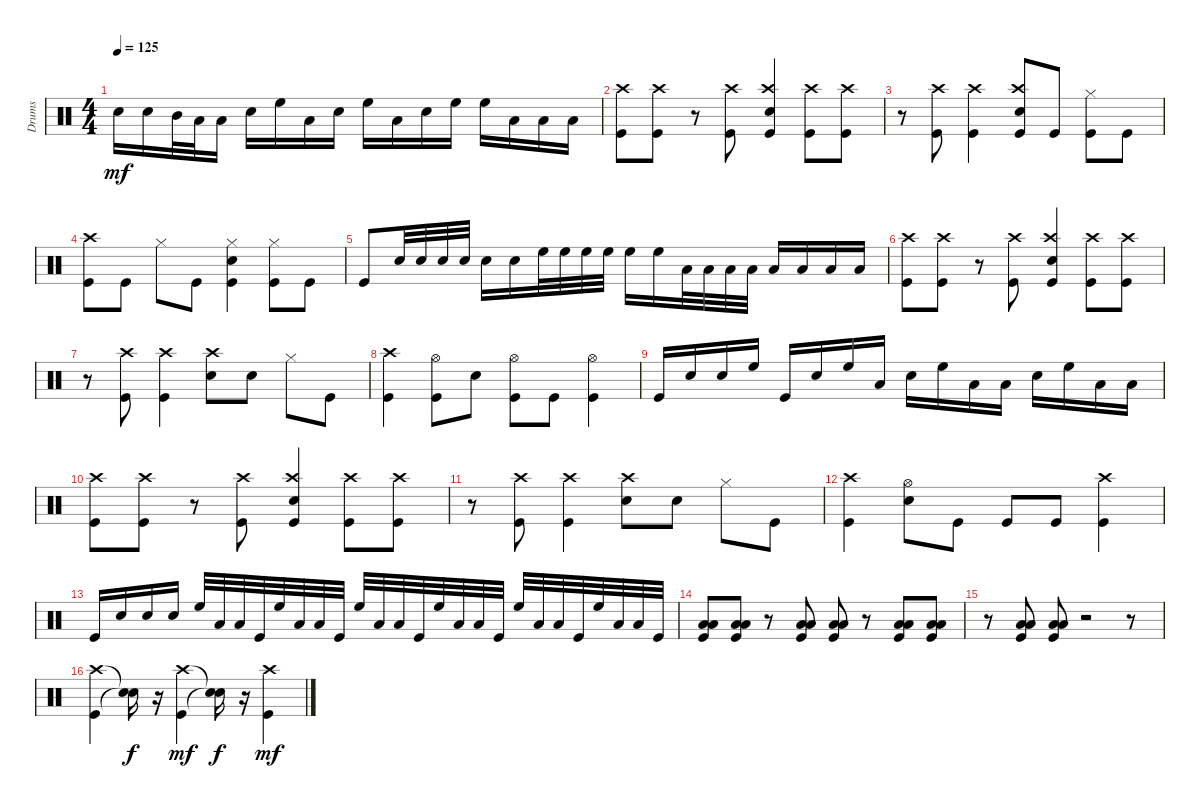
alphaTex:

\track ("Drums" "Drums") {instrument percussion}
\staff {score}
\articulation defaults
\ts (4 4)
\tempo 125
\clef neutral
\ks c "Snare (hit) 2".16{dy mf} "Snare (hit) 2".16 "Mid Tom (hit)".32 "Low Tom (hit)".32 "Low Floor Tom (hit)".16 "Snare (hit) 2".16 "High Floor Tom (hit)".16 "Low Tom (hit)".16 "Snare (hit) 2".16 "High Floor Tom (hit)".16 "Low Tom (hit)".16 "Snare (hit) 2".16 "High Floor Tom (hit)".16 "High Floor Tom (hit)".16 "Low Tom (hit)".16 "Low Floor Tom (hit)".16 "Low Floor Tom (hit)".16
|
("Crash high (hit)" "Kick (hit)").8 ("Crash high (hit)" "Kick (hit)").8 r.8 ("Crash high (hit)" "Kick (hit)").8 ("Snare (hit) 2" "Crash high (hit)" "Kick (hit)").4 ("Crash high (hit)" "Kick (hit)").8 ("Crash high (hit)" "Kick (hit)").8 |
r.8 ("Crash high (hit)" "Kick (hit)").8 ("Crash high (hit)" "Kick (hit)").4 ("Snare (hit) 2" "Crash high (hit)" "Kick (hit)").8 "Kick (hit)".8 ("Hi-Hat (closed)" "Kick (hit)").8 "Kick (hit)".8 |
("Kick (hit)" "Crash high (hit)").8 "Kick (hit)".8 "Hi-Hat (closed)".8 "Kick (hit)".8 ("Kick (hit)" "Snare (hit) 2" "Hi-Hat (closed)").4 ("Kick (hit)" "Hi-Hat (closed)").8 "Kick (hit)".8 |
"Kick (hit)".8 "Snare (hit) 2".32 "Snare (hit) 2".32 "Snare (hit) 2".32 "Snare (hit) 2".32 "Snare (hit) 2".16 "Snare (hit) 2".16 "High Floor Tom (hit)".32 "High Floor Tom (hit)".32 "High Floor Tom (hit)".32 "High Floor Tom (hit)".32 "High Floor Tom (hit)".16 "High Floor Tom (hit)".16 "Low Tom (hit)".32 "Low Tom (hit)".32 "Low Tom (hit)".32 "Low Tom (hit)".32 "Low Tom (hit)".16 "Low Tom (hit)".16 "Low Floor Tom (hit)".16 "Low Floor Tom (hit)".16 |
("Crash high (hit)" "Kick (hit)").8 ("Crash high (hit)" "Kick (hit)").8 r.8 ("Crash high (hit)" "Kick (hit)").8 ("Snare (hit) 2" "Crash high (hit)" "Kick (hit)").4 ("Crash high (hit)" "Kick (hit)").8 ("Crash high (hit)" "Kick (hit)").8 |
r.8 ("Crash high (hit)" "Kick (hit)").8 ("Crash high (hit)" "Kick (hit)").4 ("Snare (hit) 2" "Crash high (hit)").8 "Snare (hit) 2".8 "Hi-Hat (closed)".8 "Kick (hit)".8 |
("Kick (hit)" "Crash high (hit)").4 ("Kick (hit)" "Hi-Hat (open)").8 "Snare (hit) 2".8 ("Kick (hit)" "Hi-Hat (open)").8 "Kick (hit)".8 ("Hi-Hat (open)" "Kick (hit)").4 |
"Kick (hit)".16 "Snare (hit) 2".16 "Snare (hit) 2".16 "High Floor Tom (hit)".16 "Kick (hit)".16 "Snare (hit) 2".16 "High Floor Tom (hit)".16 "Low Tom (hit)".16 "Snare (hit) 2".16 "High Floor Tom (hit)".16 "Low Tom (hit)".16 "Low Floor Tom (hit)".16 "Snare (hit) 2".16 "High Floor Tom (hit)".16 "Low Tom (hit)".16 "Low Floor Tom (hit)".16 |
("Kick (hit)" "Crash high (hit)").8 ("Kick (hit)" "Crash high (hit)").8 r.8 ("Kick (hit)" "Crash high (hit)").8 ("Kick (hit)" "Snare (hit) 2" "Crash high (hit)").4 ("Kick (hit)" "Crash high (hit)").8 ("Kick (hit)" "Crash high (hit)").8 |
r.8 ("Kick (hit)" "Crash high (hit)").8 ("Kick (hit)" "Crash high (hit)").4 ("Snare (hit) 2" "Crash high (hit)").8 "Snare (hit) 2".8 "Hi-Hat (closed)".8 "Kick (hit)".8 |
("Crash high (hit)" "Kick (hit)").4 ("Snare (hit) 2" "Hi-Hat (open)").8 "Kick (hit)".8 "Kick (hit)".8 "Kick (hit)".8 ("Kick (hit)" "Crash high (hit)").4 |
"Kick (hit)".16 "Snare (hit) 2".16 "Snare (hit) 2".16 "Snare (hit) 2".16 "High Floor Tom (hit)".32 "Low Tom (hit)".32 "Low Floor Tom (hit)".32 "Kick (hit)".32 "High Floor Tom (hit)".32 "Low Tom (hit)".32 "Low Floor Tom (hit)".32 "Kick (hit)".32 "High Floor Tom (hit)".32 "Low Tom (hit)".32 "Low Floor Tom (hit)".32 "Kick (hit)".32 "High Floor Tom (hit)".32 "Low Tom (hit)".32 "Low Floor Tom (hit)".32 "Kick (hit)".32 "High Floor Tom (hit)".32 "Low Tom (hit)".32 "Low Floor Tom (hit)".32 "Kick (hit)".32 "High Floor Tom (hit)".32 "Low Tom (hit)".32 "Low Floor Tom (hit)".32 "Kick (hit)".32 |
("Low Floor Tom (hit)" "Low Tom (hit)" "Kick (hit)").8 ("Low Floor Tom (hit)" "Low Tom (hit)" "Kick (hit)").8 r.8 ("Low Floor Tom (hit)" "Low Tom (hit)" "Kick (hit)").8 ("Low Floor Tom (hit)" "Low Tom (hit)" "Kick (hit)").8 r.8 ("Low Floor Tom (hit)" "Low Tom (hit)" "Kick (hit)").8 ("Low Floor Tom (hit)" "Low Tom (hit)" "Kick (hit)").8 |
r.8 ("Low Floor Tom (hit)" "Low Tom (hit)" "Kick (hit)").8 ("Low Floor Tom (hit)" "Low Tom (hit)" "Kick (hit)").8 r.2 r.8 |
("Crash high (hit)" "Kick (hit)").4 ("Snare (hit)"{t} "Snare (hit)"{t}).16{dy f} r.16 ("Crash high (hit)" "Kick (hit)").4{dy mf} ("Snare (hit)"{t} "Snare (hit)"{t}).16{dy f} r.16 ("Crash high (hit)" "Kick (hit)").4{dy mf}
